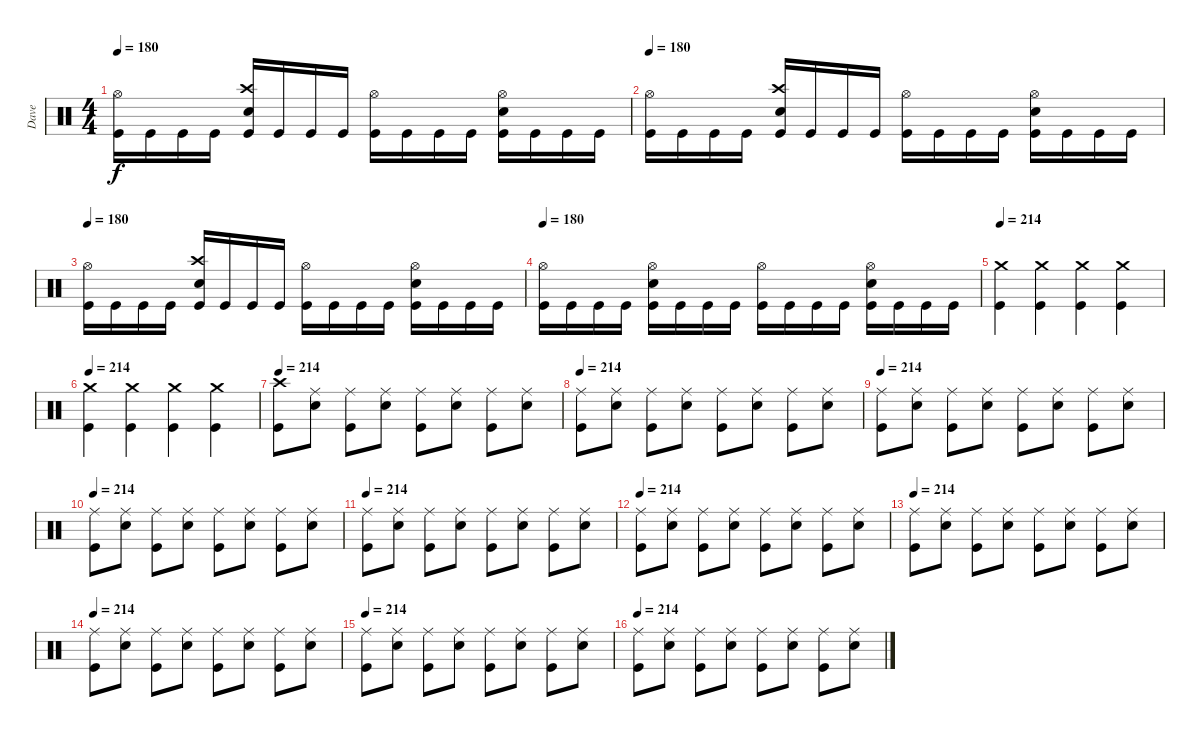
\track ("Dave" "Dave") {instrument percussion}
\staff {score}
\articulation defaults
\ts (4 4)
\tempo 180
\clef neutral
\ks c
("Hi-Hat (open)" "Kick (hit)").16{dy f} "Kick (hit)".16 "Kick (hit)".16 "Kick (hit)".16 ("Crash high (hit)" "Snare (hit) 2" "Kick (hit)").16 "Kick (hit)".16 "Kick (hit)".16 "Kick (hit)".16 ("Hi-Hat (open)" "Kick (hit)").16 "Kick (hit)".16 "Kick (hit)".16 "Kick (hit)".16 ("Hi-Hat (open)" "Snare (hit) 2" "Kick (hit)").16 "Kick (hit)".16 "Kick (hit)".16 "Kick (hit)".16 |
\tempo 180
("Hi-Hat (open)" "Kick (hit)").16 "Kick (hit)".16 "Kick (hit)".16 "Kick (hit)".16 ("Crash high (hit)" "Snare (hit) 2" "Kick (hit)").16 "Kick (hit)".16 "Kick (hit)".16 "Kick (hit)".16 ("Hi-Hat (open)" "Kick (hit)").16 "Kick (hit)".16 "Kick (hit)".16 "Kick (hit)".16 ("Hi-Hat (open)" "Snare (hit) 2" "Kick (hit)").16 "Kick (hit)".16 "Kick (hit)".16 "Kick (hit)".16 |
\tempo 180
("Hi-Hat (open)" "Kick (hit)").16 "Kick (hit)".16 "Kick (hit)".16 "Kick (hit)".16 ("Crash high (hit)" "Snare (hit) 2" "Kick (hit)").16 "Kick (hit)".16 "Kick (hit)".16 "Kick (hit)".16 ("Hi-Hat (open)" "Kick (hit)").16 "Kick (hit)".16 "Kick (hit)".16 "Kick (hit)".16 ("Hi-Hat (open)" "Snare (hit) 2" "Kick (hit)").16 "Kick (hit)".16 "Kick (hit)".16 "Kick (hit)".16 |
\tempo 180
("Hi-Hat (open)" "Kick (hit)").16 "Kick (hit)".16 "Kick (hit)".16 "Kick (hit)".16 ("Hi-Hat (open)" "Snare (hit) 2" "Kick (hit)").16 "Kick (hit)".16 "Kick (hit)".16 "Kick (hit)".16 ("Hi-Hat (open)" "Kick (hit)").16 "Kick (hit)".16 "Kick (hit)".16 "Kick (hit)".16 ("Hi-Hat (open)" "Snare (hit) 2" "Kick (hit)").16 "Kick (hit)".16 "Kick (hit)".16 "Kick (hit)".16 |
\tempo 214
("Crash medium (hit)" "Kick (hit)").4 ("Crash medium (hit)" "Kick (hit)").4 ("Crash medium (hit)" "Kick (hit)").4 ("Crash medium (hit)" "Kick (hit)").4 |
\tempo 214
("Crash medium (hit)" "Kick (hit)").4 ("Crash medium (hit)" "Kick (hit)").4 ("Crash medium (hit)" "Kick (hit)").4 ("Crash medium (hit)" "Kick (hit)").4 |
\tempo 214
("Crash high (hit)" "Kick (hit)").8 ("Ride (middle)" "Snare (hit) 2").8 ("Ride (middle)" "Kick (hit)").8 ("Ride (middle)" "Snare (hit) 2").8 ("Ride (middle)" "Kick (hit)").8 ("Ride (middle)" "Snare (hit) 2").8 ("Ride (middle)" "Kick (hit)").8 ("Ride (middle)" "Snare (hit) 2").8 |
\tempo 214
("Ride (middle)" "Kick (hit)").8 ("Ride (middle)" "Snare (hit) 2").8 ("Ride (middle)" "Kick (hit)").8 ("Ride (middle)" "Snare (hit) 2").8 ("Ride (middle)" "Kick (hit)").8 ("Ride (middle)" "Snare (hit) 2").8 ("Ride (middle)" "Kick (hit)").8 ("Ride (middle)" "Snare (hit) 2").8 |
\tempo 214
("Ride (middle)" "Kick (hit)").8 ("Ride (middle)" "Snare (hit) 2").8 ("Ride (middle)" "Kick (hit)").8 ("Ride (middle)" "Snare (hit) 2").8 ("Ride (middle)" "Kick (hit)").8 ("Ride (middle)" "Snare (hit) 2").8 ("Ride (middle)" "Kick (hit)").8 ("Ride (middle)" "Snare (hit) 2").8 |
\tempo 214
("Ride (middle)" "Kick (hit)").8 ("Ride (middle)" "Snare (hit) 2").8 ("Ride (middle)" "Kick (hit)").8 ("Ride (middle)" "Snare (hit) 2").8 ("Ride (middle)" "Kick (hit)").8 ("Ride (middle)" "Snare (hit) 2").8 ("Ride (middle)" "Kick (hit)").8 ("Ride (middle)" "Snare (hit) 2").8 |
\tempo 214
("Ride (middle)" "Kick (hit)").8 ("Ride (middle)" "Snare (hit) 2").8 ("Ride (middle)" "Kick (hit)").8 ("Ride (middle)" "Snare (hit) 2").8 ("Ride (middle)" "Kick (hit)").8 ("Ride (middle)" "Snare (hit) 2").8 ("Ride (middle)" "Kick (hit)").8 ("Ride (middle)" "Snare (hit) 2").8 |
\tempo 214
("Ride (middle)" "Kick (hit)").8 ("Ride (middle)" "Snare (hit) 2").8 ("Ride (middle)" "Kick (hit)").8 ("Ride (middle)" "Snare (hit) 2").8 ("Ride (middle)" "Kick (hit)").8 ("Ride (middle)" "Snare (hit) 2").8 ("Ride (middle)" "Kick (hit)").8 ("Ride (middle)" "Snare (hit) 2").8 |
\tempo 214
("Ride (middle)" "Kick (hit)").8 ("Ride (middle)" "Snare (hit) 2").8 ("Ride (middle)" "Kick (hit)").8 ("Ride (middle)" "Snare (hit) 2").8 ("Ride (middle)" "Kick (hit)").8 ("Ride (middle)" "Snare (hit) 2").8 ("Ride (middle)" "Kick (hit)").8 ("Ride (middle)" "Snare (hit) 2").8 |
\tempo 214
("Ride (middle)" "Kick (hit)").8 ("Ride (middle)" "Snare (hit) 2").8 ("Ride (middle)" "Kick (hit)").8 ("Ride (middle)" "Snare (hit) 2").8 ("Ride (middle)" "Kick (hit)").8 ("Ride (middle)" "Snare (hit) 2").8 ("Ride (middle)" "Kick (hit)").8 ("Ride (middle)" "Snare (hit) 2").8 |
\tempo 214
("Ride (middle)" "Kick (hit)").8 ("Ride (middle)" "Snare (hit) 2").8 ("Ride (middle)" "Kick (hit)").8 ("Ride (middle)" "Snare (hit) 2").8 ("Ride (middle)" "Kick (hit)").8 ("Ride (middle)" "Snare (hit) 2").8 ("Ride (middle)" "Kick (hit)").8 ("Ride (middle)" "Snare (hit) 2").8 |
\tempo 214
("Ride (middle)" "Kick (hit)").8 ("Ride (middle)" "Snare (hit) 2").8 ("Ride (middle)" "Kick (hit)").8 ("Ride (middle)" "Snare (hit) 2").8 ("Ride (middle)" "Kick (hit)").8 ("Ride (middle)" "Snare (hit) 2").8 ("Ride (middle)" "Kick (hit)").8 ("Ride (middle)" "Snare (hit) 2").8
